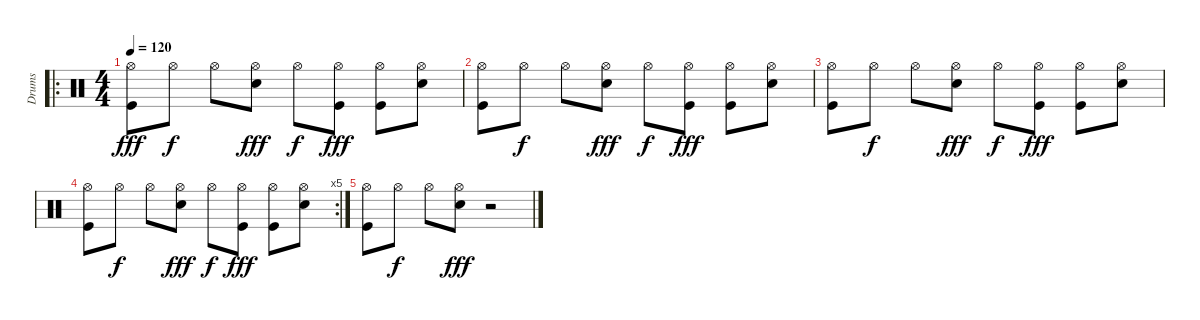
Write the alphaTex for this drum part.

\track ("Drums" "Drums") {instrument percussion}
\staff {score}
\articulation defaults
\ro
\ts (4 4)
\tempo 120
\clef neutral
\ks c
("Kick (hit)" "Hi-Hat (open)").8{dy fff} "Hi-Hat (open)".8{dy f} "Hi-Hat (open)".8 ("Snare (hit) 2" "Hi-Hat (open)").8{dy fff} "Hi-Hat (open)".8{dy f} ("Kick (hit)" "Hi-Hat (open)").8{dy fff} ("Kick (hit)" "Hi-Hat (open)").8 ("Snare (hit) 2" "Hi-Hat (open)").8 |
("Kick (hit)" "Hi-Hat (open)").8 "Hi-Hat (open)".8{dy f} "Hi-Hat (open)".8 ("Snare (hit) 2" "Hi-Hat (open)").8{dy fff} "Hi-Hat (open)".8{dy f} ("Kick (hit)" "Hi-Hat (open)").8{dy fff} ("Kick (hit)" "Hi-Hat (open)").8 ("Snare (hit) 2" "Hi-Hat (open)").8 |
("Kick (hit)" "Hi-Hat (open)").8 "Hi-Hat (open)".8{dy f} "Hi-Hat (open)".8 ("Snare (hit) 2" "Hi-Hat (open)").8{dy fff} "Hi-Hat (open)".8{dy f} ("Kick (hit)" "Hi-Hat (open)").8{dy fff} ("Kick (hit)" "Hi-Hat (open)").8 ("Snare (hit) 2" "Hi-Hat (open)").8 |
\rc 5
("Kick (hit)" "Hi-Hat (open)").8 "Hi-Hat (open)".8{dy f} "Hi-Hat (open)".8 ("Snare (hit) 2" "Hi-Hat (open)").8{dy fff} "Hi-Hat (open)".8{dy f} ("Kick (hit)" "Hi-Hat (open)").8{dy fff} ("Kick (hit)" "Hi-Hat (open)").8 ("Snare (hit) 2" "Hi-Hat (open)").8 |
("Kick (hit)" "Hi-Hat (open)").8 "Hi-Hat (open)".8{dy f} "Hi-Hat (open)".8 ("Snare (hit) 2" "Hi-Hat (open)").8{dy fff} r.2
